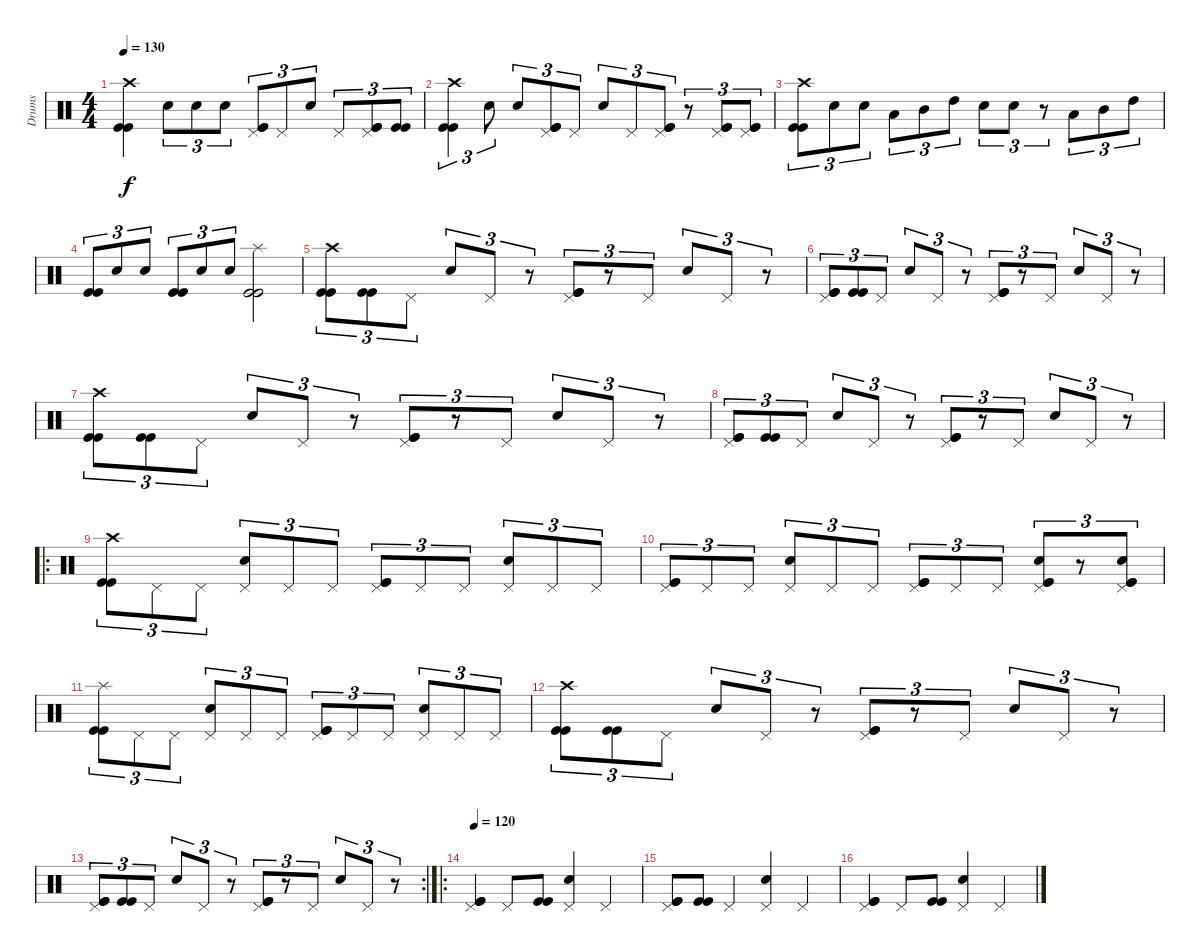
\track ("Drums" "Drums") {instrument percussion}
\staff {score}
\articulation defaults
\ts (4 4)
\tempo 130
\clef neutral
\ks c
("Crash high (hit)" "Kick (hit)" "Kick (hit)").4{dy f} "Snare (hit) 2".8{tu (3 2)} "Snare (hit) 2".8{tu (3 2)} "Snare (hit) 2".8{tu (3 2)} ("Pedal Hi-Hat (hit)" "Kick (hit)" "Kick (hit)").8{tu (3 2)} "Pedal Hi-Hat (hit)".8{tu (3 2)} "Snare (hit) 2".8{tu (3 2)} "Pedal Hi-Hat (hit)".8{tu (3 2)} ("Pedal Hi-Hat (hit)" "Kick (hit)" "Kick (hit)").8{tu (3 2)} ("Kick (hit)" "Kick (hit)").8{tu (3 2)} |
("Crash high (hit)" "Kick (hit)" "Kick (hit)").4{tu (3 2)} "Snare (hit) 2".8{tu (3 2)} "Snare (hit) 2".8{tu (3 2)} ("Pedal Hi-Hat (hit)" "Kick (hit)" "Kick (hit)").8{tu (3 2)} "Pedal Hi-Hat (hit)".8{tu (3 2)} "Snare (hit) 2".8{tu (3 2)} "Pedal Hi-Hat (hit)".8{tu (3 2)} ("Pedal Hi-Hat (hit)" "Kick (hit)" "Kick (hit)").8{tu (3 2)} r.8{tu (3 2)} ("Pedal Hi-Hat (hit)" "Kick (hit)" "Kick (hit)").8{tu (3 2)} ("Pedal Hi-Hat (hit)" "Kick (hit)" "Kick (hit)").8{tu (3 2)} |
("Crash high (hit)" "Kick (hit)" "Kick (hit)").8{tu (3 2)} "Snare (hit) 2".8{tu (3 2)} "Snare (hit) 2".8{tu (3 2)} "Low Tom (hit)".8{tu (3 2)} "Mid Tom (hit)".8{tu (3 2)} "High Tom (hit)".8{tu (3 2)} "Snare (hit) 2".8{tu (3 2)} "Snare (hit) 2".8{tu (3 2)} r.8{tu (3 2)} "Low Tom (hit)".8{tu (3 2)} "Mid Tom (hit)".8{tu (3 2)} "High Tom (hit)".8{tu (3 2)} |
("Kick (hit)" "Kick (hit)").8{tu (3 2)} "Snare (hit) 2".8{tu (3 2)} "Snare (hit) 2".8{tu (3 2)} ("Kick (hit)" "Kick (hit)").8{tu (3 2)} "Snare (hit) 2".8{tu (3 2)} "Snare (hit) 2".8{tu (3 2)} ("Splash (hit)" "Kick (hit)" "Kick (hit)").2 |
("Crash high (hit)" "Kick (hit)" "Kick (hit)").8{tu (3 2)} ("Kick (hit)" "Kick (hit)").8{tu (3 2)} "Pedal Hi-Hat (hit)".8{tu (3 2)} "Snare (hit) 2".8{tu (3 2)} "Pedal Hi-Hat (hit)".8{tu (3 2)} r.8{tu (3 2)} ("Pedal Hi-Hat (hit)" "Kick (hit)" "Kick (hit)").8{tu (3 2)} r.8{tu (3 2)} "Pedal Hi-Hat (hit)".8{tu (3 2)} "Snare (hit) 2".8{tu (3 2)} "Pedal Hi-Hat (hit)".8{tu (3 2)} r.8{tu (3 2)} |
("Pedal Hi-Hat (hit)" "Kick (hit)" "Kick (hit)").8{tu (3 2)} ("Kick (hit)" "Kick (hit)").8{tu (3 2)} "Pedal Hi-Hat (hit)".8{tu (3 2)} "Snare (hit) 2".8{tu (3 2)} "Pedal Hi-Hat (hit)".8{tu (3 2)} r.8{tu (3 2)} ("Pedal Hi-Hat (hit)" "Kick (hit)" "Kick (hit)").8{tu (3 2)} r.8{tu (3 2)} "Pedal Hi-Hat (hit)".8{tu (3 2)} "Snare (hit) 2".8{tu (3 2)} "Pedal Hi-Hat (hit)".8{tu (3 2)} r.8{tu (3 2)} |
("Crash high (hit)" "Kick (hit)" "Kick (hit)").8{tu (3 2)} ("Kick (hit)" "Kick (hit)").8{tu (3 2)} "Pedal Hi-Hat (hit)".8{tu (3 2)} "Snare (hit) 2".8{tu (3 2)} "Pedal Hi-Hat (hit)".8{tu (3 2)} r.8{tu (3 2)} ("Pedal Hi-Hat (hit)" "Kick (hit)" "Kick (hit)").8{tu (3 2)} r.8{tu (3 2)} "Pedal Hi-Hat (hit)".8{tu (3 2)} "Snare (hit) 2".8{tu (3 2)} "Pedal Hi-Hat (hit)".8{tu (3 2)} r.8{tu (3 2)} |
("Pedal Hi-Hat (hit)" "Kick (hit)" "Kick (hit)").8{tu (3 2)} ("Kick (hit)" "Kick (hit)").8{tu (3 2)} "Pedal Hi-Hat (hit)".8{tu (3 2)} "Snare (hit) 2".8{tu (3 2)} "Pedal Hi-Hat (hit)".8{tu (3 2)} r.8{tu (3 2)} ("Pedal Hi-Hat (hit)" "Kick (hit)" "Kick (hit)").8{tu (3 2)} r.8{tu (3 2)} "Pedal Hi-Hat (hit)".8{tu (3 2)} "Snare (hit) 2".8{tu (3 2)} "Pedal Hi-Hat (hit)".8{tu (3 2)} r.8{tu (3 2)} |
\ro
("Crash high (hit)" "Kick (hit)" "Kick (hit)").8{tu (3 2)} "Pedal Hi-Hat (hit)".8{tu (3 2)} "Pedal Hi-Hat (hit)".8{tu (3 2)} ("Pedal Hi-Hat (hit)" "Snare (hit) 2").8{tu (3 2)} "Pedal Hi-Hat (hit)".8{tu (3 2)} "Pedal Hi-Hat (hit)".8{tu (3 2)} ("Pedal Hi-Hat (hit)" "Kick (hit)" "Kick (hit)").8{tu (3 2)} "Pedal Hi-Hat (hit)".8{tu (3 2)} "Pedal Hi-Hat (hit)".8{tu (3 2)} ("Pedal Hi-Hat (hit)" "Snare (hit) 2").8{tu (3 2)} "Pedal Hi-Hat (hit)".8{tu (3 2)} "Pedal Hi-Hat (hit)".8{tu (3 2)} |
("Pedal Hi-Hat (hit)" "Kick (hit)" "Kick (hit)").8{tu (3 2)} "Pedal Hi-Hat (hit)".8{tu (3 2)} "Pedal Hi-Hat (hit)".8{tu (3 2)} ("Pedal Hi-Hat (hit)" "Snare (hit) 2").8{tu (3 2)} "Pedal Hi-Hat (hit)".8{tu (3 2)} "Pedal Hi-Hat (hit)".8{tu (3 2)} ("Pedal Hi-Hat (hit)" "Kick (hit)" "Kick (hit)").8{tu (3 2)} "Pedal Hi-Hat (hit)".8{tu (3 2)} "Pedal Hi-Hat (hit)".8{tu (3 2)} ("Pedal Hi-Hat (hit)" "Snare (hit) 2" "Kick (hit)" "Kick (hit)").8{tu (3 2)} r.8{tu (3 2)} ("Pedal Hi-Hat (hit)" "Snare (hit) 2" "Kick (hit)" "Kick (hit)").8{tu (3 2)} |
("Splash (hit)" "Kick (hit)" "Kick (hit)").8{tu (3 2)} "Pedal Hi-Hat (hit)".8{tu (3 2)} "Pedal Hi-Hat (hit)".8{tu (3 2)} ("Pedal Hi-Hat (hit)" "Snare (hit) 2").8{tu (3 2)} "Pedal Hi-Hat (hit)".8{tu (3 2)} "Pedal Hi-Hat (hit)".8{tu (3 2)} ("Pedal Hi-Hat (hit)" "Kick (hit)" "Kick (hit)").8{tu (3 2)} "Pedal Hi-Hat (hit)".8{tu (3 2)} "Pedal Hi-Hat (hit)".8{tu (3 2)} ("Pedal Hi-Hat (hit)" "Snare (hit) 2").8{tu (3 2)} "Pedal Hi-Hat (hit)".8{tu (3 2)} "Pedal Hi-Hat (hit)".8{tu (3 2)} |
("Crash high (hit)" "Kick (hit)" "Kick (hit)").8{tu (3 2)} ("Kick (hit)" "Kick (hit)").8{tu (3 2)} "Pedal Hi-Hat (hit)".8{tu (3 2)} "Snare (hit) 2".8{tu (3 2)} "Pedal Hi-Hat (hit)".8{tu (3 2)} r.8{tu (3 2)} ("Pedal Hi-Hat (hit)" "Kick (hit)" "Kick (hit)").8{tu (3 2)} r.8{tu (3 2)} "Pedal Hi-Hat (hit)".8{tu (3 2)} "Snare (hit) 2".8{tu (3 2)} "Pedal Hi-Hat (hit)".8{tu (3 2)} r.8{tu (3 2)} |
\rc 2
("Pedal Hi-Hat (hit)" "Kick (hit)" "Kick (hit)").8{tu (3 2)} ("Kick (hit)" "Kick (hit)").8{tu (3 2)} "Pedal Hi-Hat (hit)".8{tu (3 2)} "Snare (hit) 2".8{tu (3 2)} "Pedal Hi-Hat (hit)".8{tu (3 2)} r.8{tu (3 2)} ("Pedal Hi-Hat (hit)" "Kick (hit)" "Kick (hit)").8{tu (3 2)} r.8{tu (3 2)} "Pedal Hi-Hat (hit)".8{tu (3 2)} "Snare (hit) 2".8{tu (3 2)} "Pedal Hi-Hat (hit)".8{tu (3 2)} r.8{tu (3 2)} |
\ro
\tempo 120
("Pedal Hi-Hat (hit)" "Kick (hit)" "Kick (hit)").4 "Pedal Hi-Hat (hit)".8 ("Kick (hit)" "Kick (hit)").8 ("Pedal Hi-Hat (hit)" "Snare (hit) 2").4 "Pedal Hi-Hat (hit)".4 |
("Pedal Hi-Hat (hit)" "Kick (hit)" "Kick (hit)").8 ("Kick (hit)" "Kick (hit)").8 "Pedal Hi-Hat (hit)".4 ("Pedal Hi-Hat (hit)" "Snare (hit) 2").4 "Pedal Hi-Hat (hit)".4 |
("Pedal Hi-Hat (hit)" "Kick (hit)" "Kick (hit)").4 "Pedal Hi-Hat (hit)".8 ("Kick (hit)" "Kick (hit)").8 ("Pedal Hi-Hat (hit)" "Snare (hit) 2").4 "Pedal Hi-Hat (hit)".4
